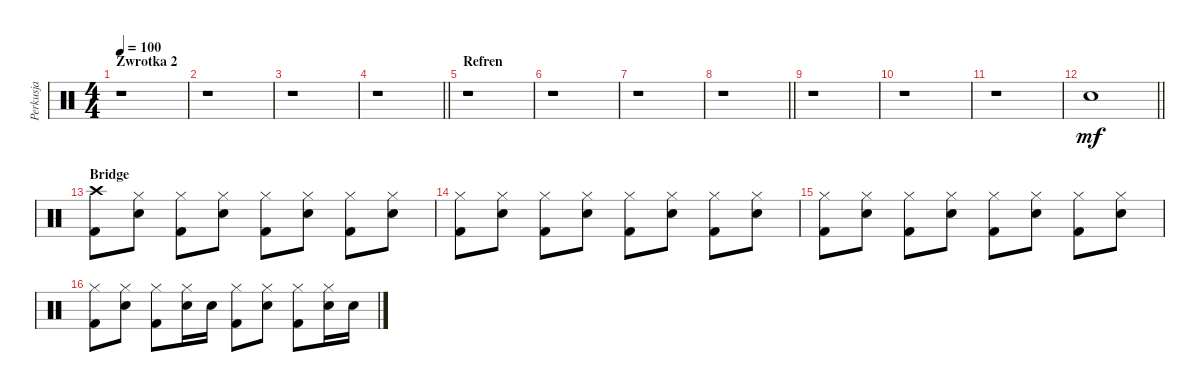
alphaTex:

\track ("Perkusja" "Perkusja") {instrument percussion}
\staff {score}
\articulation defaults
\ts (4 4)
\section ("" "Zwrotka 2")
\tempo 100
\clef neutral
\ks c
r.1{dy mf} |
r.1 |
r.1 |
\barLineRight lightlight
r.1 |
\section ("" "Refren")
r.1 |
r.1 |
r.1 |
\barLineRight lightlight
r.1 |
r.1 |
r.1 |
r.1 |
\barLineRight lightlight "Snare (hit) 2".1
|
\section ("" "Bridge")
("Kick (hit) 2" "Crash high (hit)").8 ("Snare (hit) 2" "Hi-Hat (closed)").8 ("Kick (hit) 2" "Hi-Hat (closed)").8 ("Snare (hit) 2" "Hi-Hat (closed)").8 ("Kick (hit) 2" "Hi-Hat (closed)").8 ("Snare (hit) 2" "Hi-Hat (closed)").8 ("Kick (hit) 2" "Hi-Hat (closed)").8 ("Snare (hit) 2" "Hi-Hat (closed)").8 |
("Kick (hit) 2" "Hi-Hat (closed)").8 ("Snare (hit) 2" "Hi-Hat (closed)").8 ("Kick (hit) 2" "Hi-Hat (closed)").8 ("Snare (hit) 2" "Hi-Hat (closed)").8 ("Kick (hit) 2" "Hi-Hat (closed)").8 ("Snare (hit) 2" "Hi-Hat (closed)").8 ("Kick (hit) 2" "Hi-Hat (closed)").8 ("Snare (hit) 2" "Hi-Hat (closed)").8 |
("Kick (hit) 2" "Hi-Hat (closed)").8 ("Snare (hit) 2" "Hi-Hat (closed)").8 ("Kick (hit) 2" "Hi-Hat (closed)").8 ("Snare (hit) 2" "Hi-Hat (closed)").8 ("Kick (hit) 2" "Hi-Hat (closed)").8 ("Snare (hit) 2" "Hi-Hat (closed)").8 ("Kick (hit) 2" "Hi-Hat (closed)").8 ("Snare (hit) 2" "Hi-Hat (closed)").8 |
("Kick (hit) 2" "Hi-Hat (closed)").8 ("Snare (hit) 2" "Hi-Hat (closed)").8 ("Kick (hit) 2" "Hi-Hat (closed)").8 ("Snare (hit) 2" "Hi-Hat (closed)").16 "Snare (hit) 2".16 ("Kick (hit) 2" "Hi-Hat (closed)").8 ("Snare (hit) 2" "Hi-Hat (closed)").8 ("Kick (hit) 2" "Hi-Hat (closed)").8 ("Snare (hit) 2" "Hi-Hat (closed)").16 "Snare (hit) 2".16
